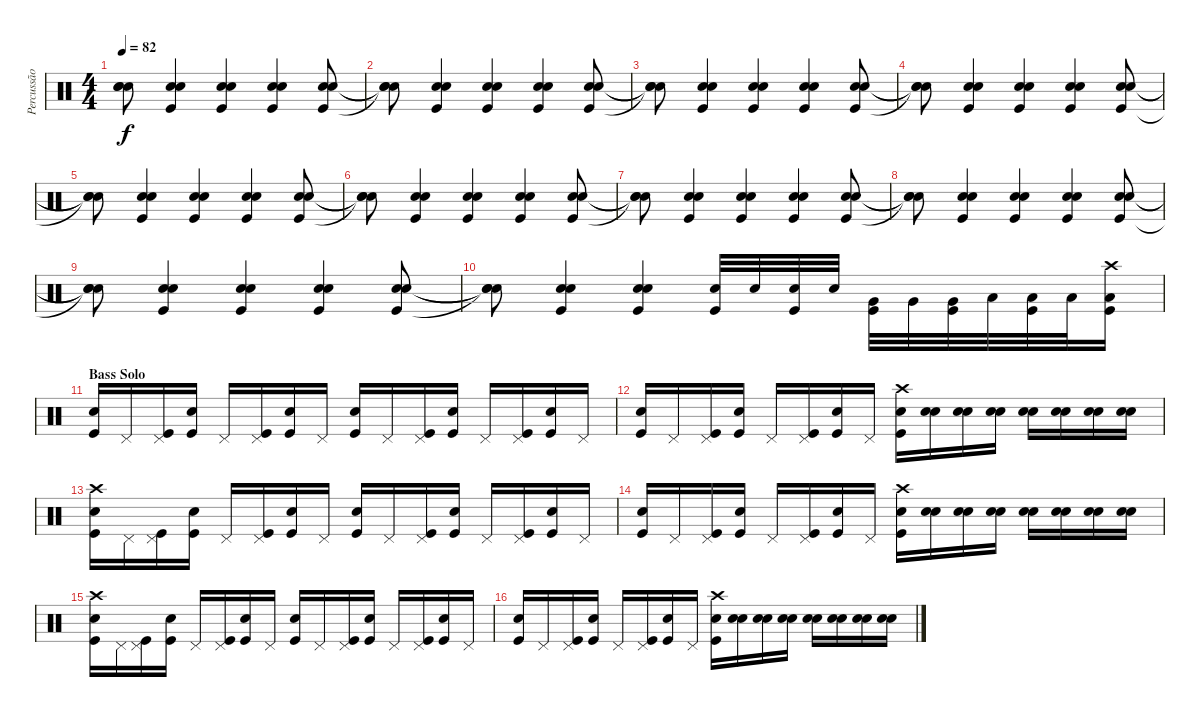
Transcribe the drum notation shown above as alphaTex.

\track ("Percussão" "Percussão") {instrument percussion}
\staff {score}
\articulation defaults
\ts (4 4)
\tempo 82
\clef neutral
\ks c
("Snare (hit)"{t} "Snare (hit)"{t} "Snare (hit)"{t}).8{dy f} ("Snare (hit) 2" "Snare (hit) 2" "Kick (hit)").4{bd 60} ("Snare (hit) 2" "Snare (hit) 2" "Kick (hit)").4{bd 60} ("Snare (hit) 2" "Snare (hit) 2" "Kick (hit)").4{bd 60} ("Snare (hit) 2" "Snare (hit) 2" "Kick (hit)").8{bd 60} |
("Snare (hit)"{t} "Snare (hit)"{t} "Snare (hit)"{t}).8 ("Snare (hit) 2" "Snare (hit) 2" "Kick (hit)").4{bd 60} ("Snare (hit) 2" "Snare (hit) 2" "Kick (hit)").4{bd 60} ("Snare (hit) 2" "Snare (hit) 2" "Kick (hit)").4{bd 60} ("Snare (hit) 2" "Snare (hit) 2" "Kick (hit)").8{bd 60} |
("Snare (hit)"{t} "Snare (hit)"{t} "Snare (hit)"{t}).8 ("Snare (hit) 2" "Snare (hit) 2" "Kick (hit)").4{bd 60} ("Snare (hit) 2" "Snare (hit) 2" "Kick (hit)").4{bd 60} ("Snare (hit) 2" "Snare (hit) 2" "Kick (hit)").4{bd 60} ("Snare (hit) 2" "Snare (hit) 2" "Kick (hit)").8{bd 60} |
("Snare (hit)"{t} "Snare (hit)"{t} "Snare (hit)"{t}).8 ("Snare (hit) 2" "Snare (hit) 2" "Kick (hit)").4{bd 60} ("Snare (hit) 2" "Snare (hit) 2" "Kick (hit)").4{bd 60} ("Snare (hit) 2" "Snare (hit) 2" "Kick (hit)").4{bd 60} ("Snare (hit) 2" "Snare (hit) 2" "Kick (hit)").8{bd 60} |
("Snare (hit)"{t} "Snare (hit)"{t} "Snare (hit)"{t}).8 ("Snare (hit) 2" "Snare (hit) 2" "Kick (hit)").4{bd 60} ("Snare (hit) 2" "Snare (hit) 2" "Kick (hit)").4{bd 60} ("Snare (hit) 2" "Snare (hit) 2" "Kick (hit)").4{bd 60} ("Snare (hit) 2" "Snare (hit) 2" "Kick (hit)").8{bd 60} |
("Snare (hit)"{t} "Snare (hit)"{t} "Snare (hit)"{t}).8 ("Snare (hit) 2" "Snare (hit) 2" "Kick (hit)").4{bd 60} ("Snare (hit) 2" "Snare (hit) 2" "Kick (hit)").4{bd 60} ("Snare (hit) 2" "Snare (hit) 2" "Kick (hit)").4{bd 60} ("Snare (hit) 2" "Snare (hit) 2" "Kick (hit)").8{bd 60} |
("Snare (hit)"{t} "Snare (hit)"{t} "Snare (hit)"{t}).8 ("Snare (hit) 2" "Snare (hit) 2" "Kick (hit)").4{bd 60} ("Snare (hit) 2" "Snare (hit) 2" "Kick (hit)").4{bd 60} ("Snare (hit) 2" "Snare (hit) 2" "Kick (hit)").4{bd 60} ("Snare (hit) 2" "Snare (hit) 2" "Kick (hit)").8{bd 60} |
("Snare (hit)"{t} "Snare (hit)"{t} "Snare (hit)"{t}).8 ("Snare (hit) 2" "Snare (hit) 2" "Kick (hit)").4{bd 60} ("Snare (hit) 2" "Snare (hit) 2" "Kick (hit)").4{bd 60} ("Snare (hit) 2" "Snare (hit) 2" "Kick (hit)").4{bd 60} ("Snare (hit) 2" "Snare (hit) 2" "Kick (hit)").8{bd 60} |
("Snare (hit)"{t} "Snare (hit)"{t} "Snare (hit)"{t}).8 ("Snare (hit) 2" "Snare (hit) 2" "Kick (hit)").4{bd 60} ("Snare (hit) 2" "Snare (hit) 2" "Kick (hit)").4{bd 60} ("Snare (hit) 2" "Snare (hit) 2" "Kick (hit)").4{bd 60} ("Snare (hit) 2" "Snare (hit) 2" "Kick (hit)").8{bd 60} |
("Snare (hit)"{t} "Snare (hit)"{t} "Snare (hit)"{t}).8 ("Snare (hit) 2" "Snare (hit) 2" "Kick (hit)").4{bd 60} ("Snare (hit) 2" "Snare (hit) 2" "Kick (hit)").4{bd 60} ("Snare (hit) 2" "Kick (hit)").32 "Snare (hit) 2".32 ("Snare (hit) 2" "Kick (hit)").32 "Snare (hit) 2".32 ("Very Low Tom (hit)" "Kick (hit)").32 "Very Low Tom (hit)".32 ("Very Low Tom (hit)" "Kick (hit)").32 "Low Floor Tom (hit)".32 ("Low Floor Tom (hit)" "Kick (hit)").32 "Low Floor Tom (hit)".32 ("Crash high (hit)" "Low Floor Tom (hit)" "Kick (hit)").16 |
\section ("" "Bass Solo")
("Snare (hit) 2" "Kick (hit)").16 "Pedal Hi-Hat (hit)".16 ("Pedal Hi-Hat (hit)" "Kick (hit)").16 ("Snare (hit) 2" "Kick (hit)").16 "Pedal Hi-Hat (hit)".16 ("Pedal Hi-Hat (hit)" "Kick (hit)").16 ("Snare (hit) 2" "Kick (hit)").16 "Pedal Hi-Hat (hit)".16 ("Snare (hit) 2" "Kick (hit)").16 "Pedal Hi-Hat (hit)".16 ("Pedal Hi-Hat (hit)" "Kick (hit)").16 ("Snare (hit) 2" "Kick (hit)").16 "Pedal Hi-Hat (hit)".16 ("Pedal Hi-Hat (hit)" "Kick (hit)").16 ("Snare (hit) 2" "Kick (hit)").16 "Pedal Hi-Hat (hit)".16 |
("Snare (hit) 2" "Kick (hit)").16 "Pedal Hi-Hat (hit)".16 ("Pedal Hi-Hat (hit)" "Kick (hit)").16 ("Snare (hit) 2" "Kick (hit)").16 "Pedal Hi-Hat (hit)".16 ("Pedal Hi-Hat (hit)" "Kick (hit)").16 ("Snare (hit) 2" "Kick (hit)").16 "Pedal Hi-Hat (hit)".16 ("Crash high (hit)" "Snare (hit) 2" "Kick (hit)").16 ("Snare (hit) 2" "Snare (hit) 2").16 ("Snare (hit) 2" "Snare (hit) 2").16 ("Snare (hit) 2" "Snare (hit) 2").16 ("Snare (hit) 2" "Snare (hit) 2").16 ("Snare (hit) 2" "Snare (hit) 2").16 ("Snare (hit) 2" "Snare (hit) 2").16 ("Snare (hit) 2" "Snare (hit) 2").16 |
("Crash high (hit)" "Snare (hit) 2" "Kick (hit)").16 "Pedal Hi-Hat (hit)".16 ("Pedal Hi-Hat (hit)" "Kick (hit)").16 ("Snare (hit) 2" "Kick (hit)").16 "Pedal Hi-Hat (hit)".16 ("Pedal Hi-Hat (hit)" "Kick (hit)").16 ("Snare (hit) 2" "Kick (hit)").16 "Pedal Hi-Hat (hit)".16 ("Snare (hit) 2" "Kick (hit)").16 "Pedal Hi-Hat (hit)".16 ("Pedal Hi-Hat (hit)" "Kick (hit)").16 ("Snare (hit) 2" "Kick (hit)").16 "Pedal Hi-Hat (hit)".16 ("Pedal Hi-Hat (hit)" "Kick (hit)").16 ("Snare (hit) 2" "Kick (hit)").16 "Pedal Hi-Hat (hit)".16 |
("Snare (hit) 2" "Kick (hit)").16 "Pedal Hi-Hat (hit)".16 ("Pedal Hi-Hat (hit)" "Kick (hit)").16 ("Snare (hit) 2" "Kick (hit)").16 "Pedal Hi-Hat (hit)".16 ("Pedal Hi-Hat (hit)" "Kick (hit)").16 ("Snare (hit) 2" "Kick (hit)").16 "Pedal Hi-Hat (hit)".16 ("Crash high (hit)" "Snare (hit) 2" "Kick (hit)").16 ("Snare (hit) 2" "Snare (hit) 2").16 ("Snare (hit) 2" "Snare (hit) 2").16 ("Snare (hit) 2" "Snare (hit) 2").16 ("Snare (hit) 2" "Snare (hit) 2").16 ("Snare (hit) 2" "Snare (hit) 2").16 ("Snare (hit) 2" "Snare (hit) 2").16 ("Snare (hit) 2" "Snare (hit) 2").16 |
("Crash high (hit)" "Snare (hit) 2" "Kick (hit)").16 "Pedal Hi-Hat (hit)".16 ("Pedal Hi-Hat (hit)" "Kick (hit)").16 ("Snare (hit) 2" "Kick (hit)").16 "Pedal Hi-Hat (hit)".16 ("Pedal Hi-Hat (hit)" "Kick (hit)").16 ("Snare (hit) 2" "Kick (hit)").16 "Pedal Hi-Hat (hit)".16 ("Snare (hit) 2" "Kick (hit)").16 "Pedal Hi-Hat (hit)".16 ("Pedal Hi-Hat (hit)" "Kick (hit)").16 ("Snare (hit) 2" "Kick (hit)").16 "Pedal Hi-Hat (hit)".16 ("Pedal Hi-Hat (hit)" "Kick (hit)").16 ("Snare (hit) 2" "Kick (hit)").16 "Pedal Hi-Hat (hit)".16 |
("Snare (hit) 2" "Kick (hit)").16 "Pedal Hi-Hat (hit)".16 ("Pedal Hi-Hat (hit)" "Kick (hit)").16 ("Snare (hit) 2" "Kick (hit)").16 "Pedal Hi-Hat (hit)".16 ("Pedal Hi-Hat (hit)" "Kick (hit)").16 ("Snare (hit) 2" "Kick (hit)").16 "Pedal Hi-Hat (hit)".16 ("Crash high (hit)" "Snare (hit) 2" "Kick (hit)").16 ("Snare (hit) 2" "Snare (hit) 2").16 ("Snare (hit) 2" "Snare (hit) 2").16 ("Snare (hit) 2" "Snare (hit) 2").16 ("Snare (hit) 2" "Snare (hit) 2").16 ("Snare (hit) 2" "Snare (hit) 2").16 ("Snare (hit) 2" "Snare (hit) 2").16 ("Snare (hit) 2" "Snare (hit) 2").16
